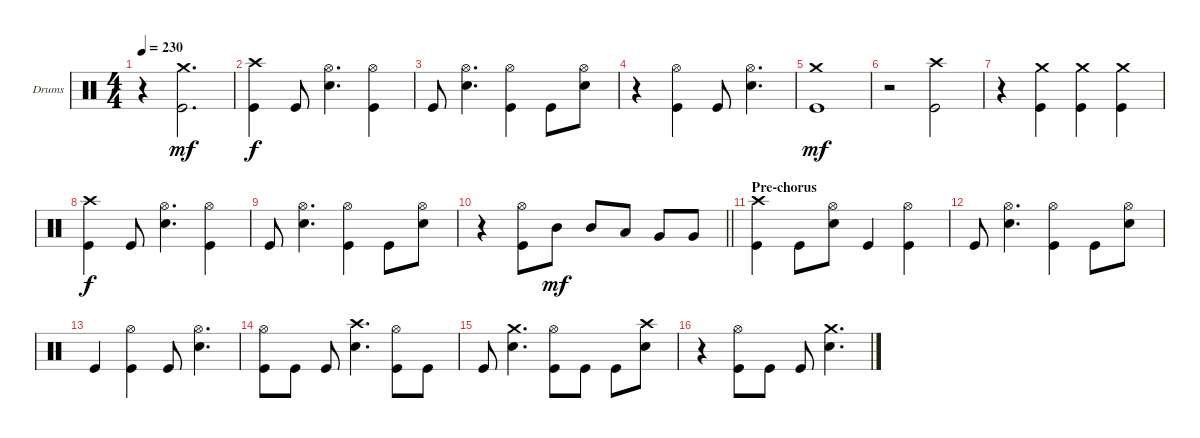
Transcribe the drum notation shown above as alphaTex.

\bracketExtendMode groupsimilarinstruments
\firstSystemTrackNameOrientation horizontal
\otherSystemsTrackNameOrientation horizontal
\track ("Drumkit" "Drums") {instrument percussion}
\staff {score}
\articulation defaults
\ts (4 4)
\tempo 230
\clef neutral
\ks c
r.4{dy mf} ("Crash medium (hit)" "Kick (hit)").2{d} |
("Crash high (hit)" "Kick (hit)").4{dy f} "Kick (hit)".8 ("Hi-Hat (open)" "Snare (hit) 2").4{d} ("Hi-Hat (open)" "Kick (hit)").4 |
"Kick (hit)".8 ("Hi-Hat (open)" "Snare (hit) 2").4{d} ("Hi-Hat (open)" "Kick (hit)").4 "Kick (hit)".8 ("Hi-Hat (open)" "Snare (hit) 2").8 |
r.4 ("Hi-Hat (open)" "Kick (hit)").4 "Kick (hit)".8 ("Hi-Hat (open)" "Snare (hit) 2").4{d} |
("Crash medium (hit)" "Kick (hit)").1{dy mf} |
r.2 ("Crash high (hit)" "Kick (hit)").2 |
r.4 ("Crash medium (hit)" "Kick (hit)").4 ("Crash medium (hit)" "Kick (hit)").4 ("Crash medium (hit)" "Kick (hit)").4 |
("Crash high (hit)" "Kick (hit)").4{dy f} "Kick (hit)".8 ("Hi-Hat (open)" "Snare (hit) 2").4{d} ("Hi-Hat (open)" "Kick (hit)").4 |
"Kick (hit)".8 ("Hi-Hat (open)" "Snare (hit) 2").4{d} ("Hi-Hat (open)" "Kick (hit)").4 "Kick (hit)".8 ("Hi-Hat (open)" "Snare (hit) 2").8 |
\barLineRight lightlight
r.4 ("Hi-Hat (open)" "Kick (hit)").8 "Mid Tom (hit)".8{dy mf} "Mid Tom (hit)".8 "Low Tom (hit)".8 "Very Low Tom (hit)".8 "Very Low Tom (hit)".8 |
\section ("" "Pre-chorus")
("Crash high (hit)" "Kick (hit)").4 "Kick (hit)".8 ("Hi-Hat (open)" "Snare (hit) 2").8 "Kick (hit)".4 ("Hi-Hat (open)" "Kick (hit)").4 |
"Kick (hit)".8 ("Hi-Hat (open)" "Snare (hit) 2").4{d} ("Hi-Hat (open)" "Kick (hit)").4 "Kick (hit)".8 ("Hi-Hat (open)" "Snare (hit) 2").8 |
"Kick (hit)".4 ("Hi-Hat (open)" "Kick (hit)").4 "Kick (hit)".8 ("Hi-Hat (open)" "Snare (hit) 2").4{d} |
("Hi-Hat (open)" "Kick (hit)").8 "Kick (hit)".8 "Kick (hit)".8 ("Crash high (hit)" "Snare (hit) 2").4{d} ("Hi-Hat (open)" "Kick (hit)").8 "Kick (hit)".8 |
"Kick (hit)".8 ("Crash medium (hit)" "Snare (hit) 2").4{d} ("Hi-Hat (open)" "Kick (hit)").8 "Kick (hit)".8 "Kick (hit)".8 ("Crash high (hit)" "Snare (hit) 2").8 |
r.4 ("Hi-Hat (open)" "Kick (hit)").8 "Kick (hit)".8 "Kick (hit)".8 ("Crash medium (hit)" "Snare (hit) 2").4{d}
